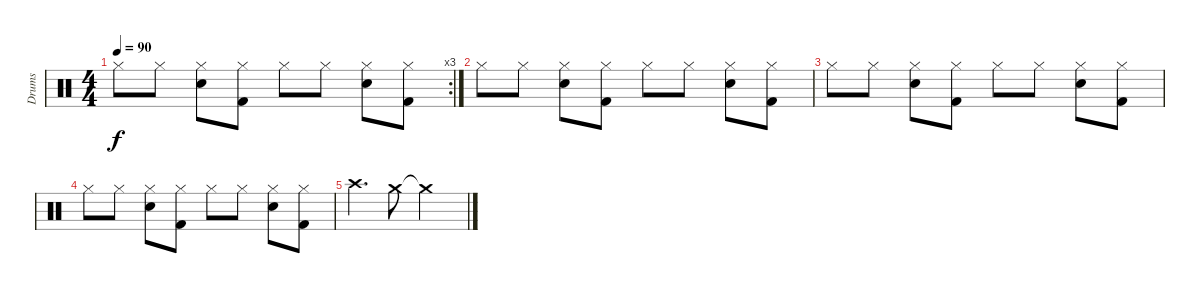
\track ("Drums" "Drums") {instrument percussion}
\staff {score}
\articulation defaults
\rc 3
\ts (4 4)
\tempo 90
\clef neutral
\ks c "Hi-Hat (closed)".8{dy f} "Hi-Hat (closed)".8
("Hi-Hat (closed)" "Snare (hit) 2").8 ("Hi-Hat (closed)" "Kick (hit) 2").8 "Hi-Hat (closed)".8 "Hi-Hat (closed)".8 ("Hi-Hat (closed)" "Snare (hit) 2").8 ("Hi-Hat (closed)" "Kick (hit) 2").8 |
"Hi-Hat (closed)".8 "Hi-Hat (closed)".8 ("Hi-Hat (closed)" "Snare (hit) 2").8 ("Hi-Hat (closed)" "Kick (hit) 2").8 "Hi-Hat (closed)".8 "Hi-Hat (closed)".8 ("Hi-Hat (closed)" "Snare (hit) 2").8 ("Hi-Hat (closed)" "Kick (hit) 2").8 |
"Hi-Hat (closed)".8 "Hi-Hat (closed)".8 ("Hi-Hat (closed)" "Snare (hit) 2").8 ("Hi-Hat (closed)" "Kick (hit) 2").8 "Hi-Hat (closed)".8 "Hi-Hat (closed)".8 ("Hi-Hat (closed)" "Snare (hit) 2").8 ("Hi-Hat (closed)" "Kick (hit) 2").8 |
"Hi-Hat (closed)".8 "Hi-Hat (closed)".8 ("Hi-Hat (closed)" "Snare (hit) 2").8 ("Hi-Hat (closed)" "Kick (hit) 2").8 "Hi-Hat (closed)".8 "Hi-Hat (closed)".8 ("Hi-Hat (closed)" "Snare (hit) 2").8 ("Hi-Hat (closed)" "Kick (hit) 2").8 |
"Crash high (hit)".4{d} "Crash medium (hit)".8 "Crash medium (hit)"{t}.2
